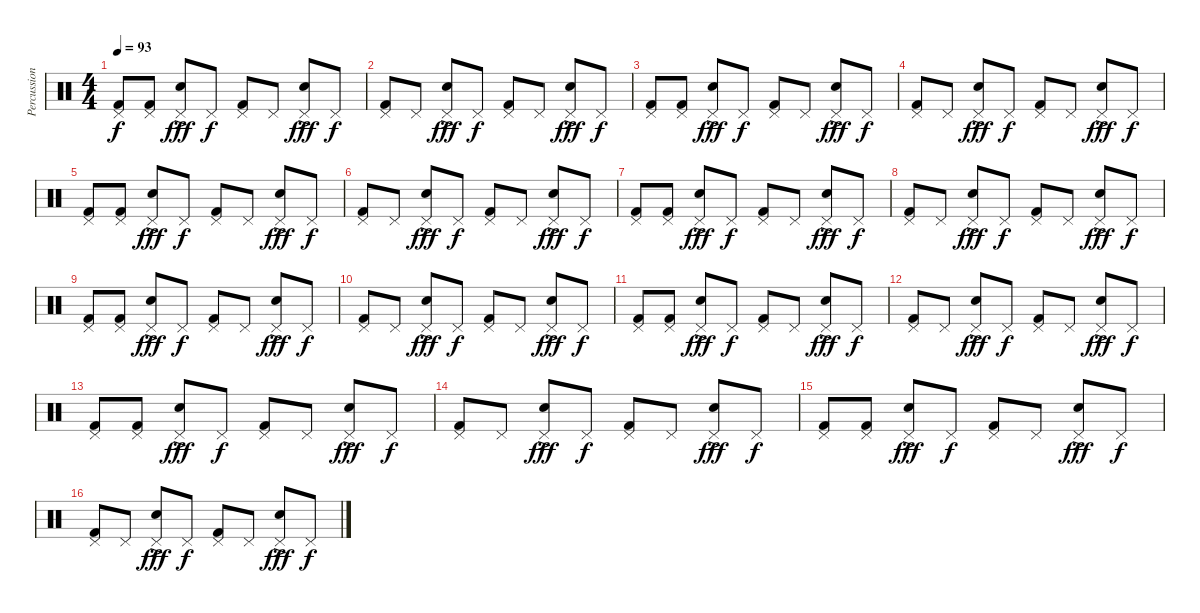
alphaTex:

\track ("Percussion" "Percussion") {instrument percussion}
\staff {score}
\articulation defaults
\ts (4 4)
\tempo 93
\clef neutral
\ks c
("Pedal Hi-Hat (hit)" "Kick (hit) 2").8{dy f} ("Pedal Hi-Hat (hit)" "Kick (hit) 2").8 ("Pedal Hi-Hat (hit)" "Electric Snare (hit)"{ac}).8{dy fff} "Pedal Hi-Hat (hit)".8{dy f} ("Pedal Hi-Hat (hit)" "Kick (hit) 2").8 "Pedal Hi-Hat (hit)".8 ("Pedal Hi-Hat (hit)" "Electric Snare (hit)"{ac}).8{dy fff} "Pedal Hi-Hat (hit)".8{dy f} |
("Pedal Hi-Hat (hit)" "Kick (hit) 2").8 "Pedal Hi-Hat (hit)".8 ("Pedal Hi-Hat (hit)" "Electric Snare (hit)"{ac}).8{dy fff} "Pedal Hi-Hat (hit)".8{dy f} ("Pedal Hi-Hat (hit)" "Kick (hit) 2").8 "Pedal Hi-Hat (hit)".8 ("Pedal Hi-Hat (hit)" "Electric Snare (hit)"{ac}).8{dy fff} "Pedal Hi-Hat (hit)".8{dy f} |
("Pedal Hi-Hat (hit)" "Kick (hit) 2").8 ("Pedal Hi-Hat (hit)" "Kick (hit) 2").8 ("Pedal Hi-Hat (hit)" "Electric Snare (hit)"{ac}).8{dy fff} "Pedal Hi-Hat (hit)".8{dy f} ("Pedal Hi-Hat (hit)" "Kick (hit) 2").8 "Pedal Hi-Hat (hit)".8 ("Pedal Hi-Hat (hit)" "Electric Snare (hit)"{ac}).8{dy fff} "Pedal Hi-Hat (hit)".8{dy f} |
("Pedal Hi-Hat (hit)" "Kick (hit) 2").8 "Pedal Hi-Hat (hit)".8 ("Pedal Hi-Hat (hit)" "Electric Snare (hit)"{ac}).8{dy fff} "Pedal Hi-Hat (hit)".8{dy f} ("Pedal Hi-Hat (hit)" "Kick (hit) 2").8 "Pedal Hi-Hat (hit)".8 ("Pedal Hi-Hat (hit)" "Electric Snare (hit)"{ac}).8{dy fff} "Pedal Hi-Hat (hit)".8{dy f} |
("Pedal Hi-Hat (hit)" "Kick (hit) 2").8 ("Pedal Hi-Hat (hit)" "Kick (hit) 2").8 ("Pedal Hi-Hat (hit)" "Electric Snare (hit)"{ac}).8{dy fff} "Pedal Hi-Hat (hit)".8{dy f} ("Pedal Hi-Hat (hit)" "Kick (hit) 2").8 "Pedal Hi-Hat (hit)".8 ("Pedal Hi-Hat (hit)" "Electric Snare (hit)"{ac}).8{dy fff} "Pedal Hi-Hat (hit)".8{dy f} |
("Pedal Hi-Hat (hit)" "Kick (hit) 2").8 "Pedal Hi-Hat (hit)".8 ("Pedal Hi-Hat (hit)" "Electric Snare (hit)"{ac}).8{dy fff} "Pedal Hi-Hat (hit)".8{dy f} ("Pedal Hi-Hat (hit)" "Kick (hit) 2").8 "Pedal Hi-Hat (hit)".8 ("Pedal Hi-Hat (hit)" "Electric Snare (hit)"{ac}).8{dy fff} "Pedal Hi-Hat (hit)".8{dy f} |
("Pedal Hi-Hat (hit)" "Kick (hit) 2").8 ("Pedal Hi-Hat (hit)" "Kick (hit) 2").8 ("Pedal Hi-Hat (hit)" "Electric Snare (hit)"{ac}).8{dy fff} "Pedal Hi-Hat (hit)".8{dy f} ("Pedal Hi-Hat (hit)" "Kick (hit) 2").8 "Pedal Hi-Hat (hit)".8 ("Pedal Hi-Hat (hit)" "Electric Snare (hit)"{ac}).8{dy fff} "Pedal Hi-Hat (hit)".8{dy f} |
("Pedal Hi-Hat (hit)" "Kick (hit) 2").8 "Pedal Hi-Hat (hit)".8 ("Pedal Hi-Hat (hit)" "Electric Snare (hit)"{ac}).8{dy fff} "Pedal Hi-Hat (hit)".8{dy f} ("Pedal Hi-Hat (hit)" "Kick (hit) 2").8 "Pedal Hi-Hat (hit)".8 ("Pedal Hi-Hat (hit)" "Electric Snare (hit)"{ac}).8{dy fff} "Pedal Hi-Hat (hit)".8{dy f} |
("Pedal Hi-Hat (hit)" "Kick (hit) 2").8 ("Pedal Hi-Hat (hit)" "Kick (hit) 2").8 ("Pedal Hi-Hat (hit)" "Electric Snare (hit)"{ac}).8{dy fff} "Pedal Hi-Hat (hit)".8{dy f} ("Pedal Hi-Hat (hit)" "Kick (hit) 2").8 "Pedal Hi-Hat (hit)".8 ("Pedal Hi-Hat (hit)" "Electric Snare (hit)"{ac}).8{dy fff} "Pedal Hi-Hat (hit)".8{dy f} |
("Pedal Hi-Hat (hit)" "Kick (hit) 2").8 "Pedal Hi-Hat (hit)".8 ("Pedal Hi-Hat (hit)" "Electric Snare (hit)"{ac}).8{dy fff} "Pedal Hi-Hat (hit)".8{dy f} ("Pedal Hi-Hat (hit)" "Kick (hit) 2").8 "Pedal Hi-Hat (hit)".8 ("Pedal Hi-Hat (hit)" "Electric Snare (hit)"{ac}).8{dy fff} "Pedal Hi-Hat (hit)".8{dy f} |
("Pedal Hi-Hat (hit)" "Kick (hit) 2").8 ("Pedal Hi-Hat (hit)" "Kick (hit) 2").8 ("Pedal Hi-Hat (hit)" "Electric Snare (hit)"{ac}).8{dy fff} "Pedal Hi-Hat (hit)".8{dy f} ("Pedal Hi-Hat (hit)" "Kick (hit) 2").8 "Pedal Hi-Hat (hit)".8 ("Pedal Hi-Hat (hit)" "Electric Snare (hit)"{ac}).8{dy fff} "Pedal Hi-Hat (hit)".8{dy f} |
("Pedal Hi-Hat (hit)" "Kick (hit) 2").8 "Pedal Hi-Hat (hit)".8 ("Pedal Hi-Hat (hit)" "Electric Snare (hit)"{ac}).8{dy fff} "Pedal Hi-Hat (hit)".8{dy f} ("Pedal Hi-Hat (hit)" "Kick (hit) 2").8 "Pedal Hi-Hat (hit)".8 ("Pedal Hi-Hat (hit)" "Electric Snare (hit)"{ac}).8{dy fff} "Pedal Hi-Hat (hit)".8{dy f} |
("Pedal Hi-Hat (hit)" "Kick (hit) 2").8 ("Pedal Hi-Hat (hit)" "Kick (hit) 2").8 ("Pedal Hi-Hat (hit)" "Electric Snare (hit)"{ac}).8{dy fff} "Pedal Hi-Hat (hit)".8{dy f} ("Pedal Hi-Hat (hit)" "Kick (hit) 2").8 "Pedal Hi-Hat (hit)".8 ("Pedal Hi-Hat (hit)" "Electric Snare (hit)"{ac}).8{dy fff} "Pedal Hi-Hat (hit)".8{dy f} |
("Pedal Hi-Hat (hit)" "Kick (hit) 2").8 "Pedal Hi-Hat (hit)".8 ("Pedal Hi-Hat (hit)" "Electric Snare (hit)"{ac}).8{dy fff} "Pedal Hi-Hat (hit)".8{dy f} ("Pedal Hi-Hat (hit)" "Kick (hit) 2").8 "Pedal Hi-Hat (hit)".8 ("Pedal Hi-Hat (hit)" "Electric Snare (hit)"{ac}).8{dy fff} "Pedal Hi-Hat (hit)".8{dy f} |
("Pedal Hi-Hat (hit)" "Kick (hit) 2").8 ("Pedal Hi-Hat (hit)" "Kick (hit) 2").8 ("Pedal Hi-Hat (hit)" "Electric Snare (hit)"{ac}).8{dy fff} "Pedal Hi-Hat (hit)".8{dy f} ("Pedal Hi-Hat (hit)" "Kick (hit) 2").8 "Pedal Hi-Hat (hit)".8 ("Pedal Hi-Hat (hit)" "Electric Snare (hit)"{ac}).8{dy fff} "Pedal Hi-Hat (hit)".8{dy f} |
("Pedal Hi-Hat (hit)" "Kick (hit) 2").8 "Pedal Hi-Hat (hit)".8 ("Pedal Hi-Hat (hit)" "Electric Snare (hit)"{ac}).8{dy fff} "Pedal Hi-Hat (hit)".8{dy f} ("Pedal Hi-Hat (hit)" "Kick (hit) 2").8 "Pedal Hi-Hat (hit)".8 ("Pedal Hi-Hat (hit)" "Electric Snare (hit)"{ac}).8{dy fff} "Pedal Hi-Hat (hit)".8{dy f}
